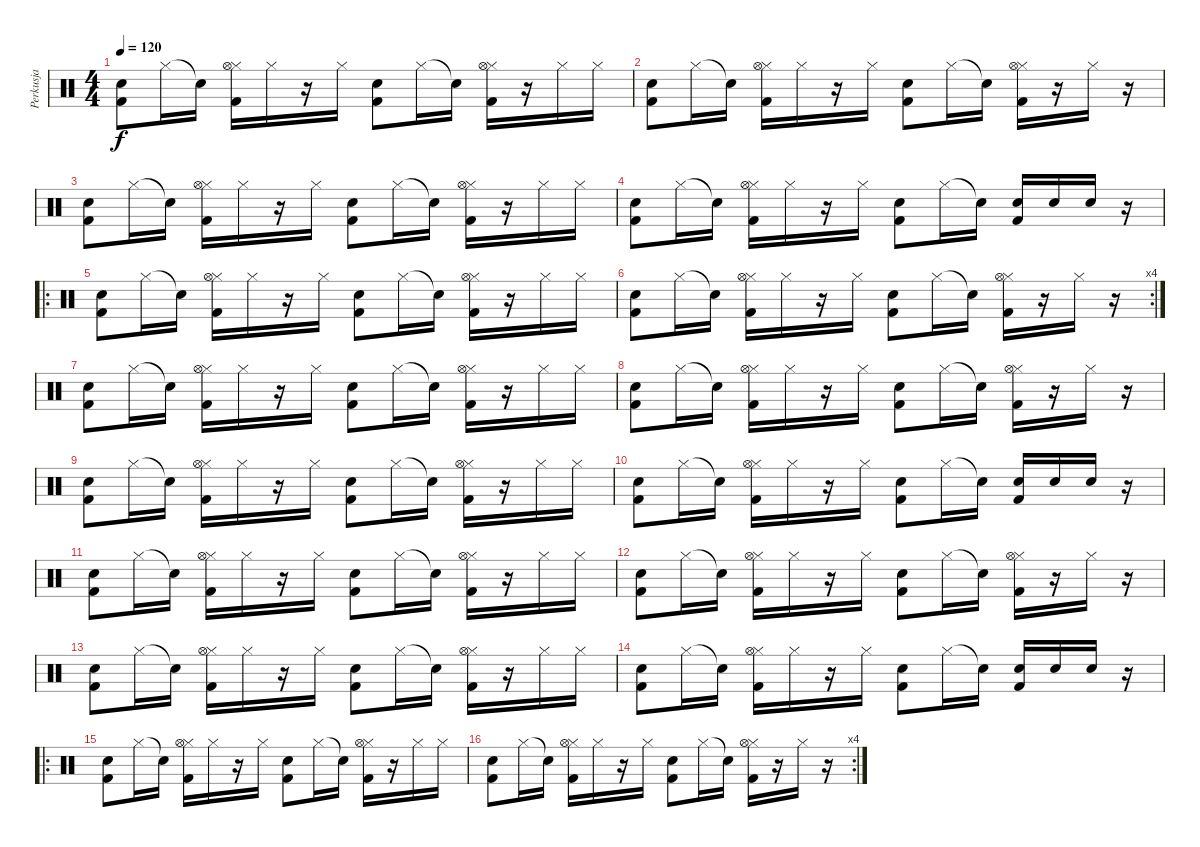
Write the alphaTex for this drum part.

\track ("Perkusja" "Perkusja") {instrument percussion}
\staff {score}
\articulation defaults
\ts (4 4)
\tempo 120
\clef neutral
\ks c
("Snare (hit) 2" "Kick (hit) 2").8{dy f} "Hi-Hat (closed)".16 "Snare (hit)"{t}.16 ("Hi-Hat (closed)" "Hi-Hat (open)" "Kick (hit) 2").16 "Hi-Hat (closed)".16 r.16 "Hi-Hat (closed)".16 ("Snare (hit) 2" "Kick (hit) 2").8 "Hi-Hat (closed)".16 "Snare (hit)"{t}.16 ("Hi-Hat (closed)" "Hi-Hat (open)" "Kick (hit) 2").16 r.16 "Hi-Hat (closed)".16 "Hi-Hat (closed)".16 |
("Snare (hit) 2" "Kick (hit) 2").8 "Hi-Hat (closed)".16 "Snare (hit)"{t}.16 ("Hi-Hat (closed)" "Hi-Hat (open)" "Kick (hit) 2").16 "Hi-Hat (closed)".16 r.16 "Hi-Hat (closed)".16 ("Snare (hit) 2" "Kick (hit) 2").8 "Hi-Hat (closed)".16 "Snare (hit)"{t}.16 ("Hi-Hat (closed)" "Hi-Hat (open)" "Kick (hit) 2").16 r.16 "Hi-Hat (closed)".16 r.16 |
("Snare (hit) 2" "Kick (hit) 2").8 "Hi-Hat (closed)".16 "Snare (hit)"{t}.16 ("Hi-Hat (closed)" "Hi-Hat (open)" "Kick (hit) 2").16 "Hi-Hat (closed)".16 r.16 "Hi-Hat (closed)".16 ("Snare (hit) 2" "Kick (hit) 2").8 "Hi-Hat (closed)".16 "Snare (hit)"{t}.16 ("Hi-Hat (closed)" "Hi-Hat (open)" "Kick (hit) 2").16 r.16 "Hi-Hat (closed)".16 "Hi-Hat (closed)".16 |
("Snare (hit) 2" "Kick (hit) 2").8 "Hi-Hat (closed)".16 "Snare (hit)"{t}.16 ("Hi-Hat (closed)" "Hi-Hat (open)" "Kick (hit) 2").16 "Hi-Hat (closed)".16 r.16 "Hi-Hat (closed)".16 ("Snare (hit) 2" "Kick (hit) 2").8 "Hi-Hat (closed)".16 "Snare (hit)"{t}.16 ("Electric Snare (hit)" "Kick (hit) 2").16 "Electric Snare (hit)".16 "Electric Snare (hit)".16 r.16 |
\ro
("Snare (hit) 2" "Kick (hit) 2").8 "Hi-Hat (closed)".16 "Snare (hit)"{t}.16 ("Hi-Hat (closed)" "Hi-Hat (open)" "Kick (hit) 2").16 "Hi-Hat (closed)".16 r.16 "Hi-Hat (closed)".16 ("Snare (hit) 2" "Kick (hit) 2").8 "Hi-Hat (closed)".16 "Snare (hit)"{t}.16 ("Hi-Hat (closed)" "Hi-Hat (open)" "Kick (hit) 2").16 r.16 "Hi-Hat (closed)".16 "Hi-Hat (closed)".16 |
\rc 4
("Snare (hit) 2" "Kick (hit) 2").8 "Hi-Hat (closed)".16 "Snare (hit)"{t}.16 ("Hi-Hat (closed)" "Hi-Hat (open)" "Kick (hit) 2").16 "Hi-Hat (closed)".16 r.16 "Hi-Hat (closed)".16 ("Snare (hit) 2" "Kick (hit) 2").8 "Hi-Hat (closed)".16 "Snare (hit)"{t}.16 ("Hi-Hat (closed)" "Hi-Hat (open)" "Kick (hit) 2").16 r.16 "Hi-Hat (closed)".16 r.16 |
("Snare (hit) 2" "Kick (hit) 2").8 "Hi-Hat (closed)".16 "Snare (hit)"{t}.16 ("Hi-Hat (closed)" "Hi-Hat (open)" "Kick (hit) 2").16 "Hi-Hat (closed)".16 r.16 "Hi-Hat (closed)".16 ("Snare (hit) 2" "Kick (hit) 2").8 "Hi-Hat (closed)".16 "Snare (hit)"{t}.16 ("Hi-Hat (closed)" "Hi-Hat (open)" "Kick (hit) 2").16 r.16 "Hi-Hat (closed)".16 "Hi-Hat (closed)".16 |
("Snare (hit) 2" "Kick (hit) 2").8 "Hi-Hat (closed)".16 "Snare (hit)"{t}.16 ("Hi-Hat (closed)" "Hi-Hat (open)" "Kick (hit) 2").16 "Hi-Hat (closed)".16 r.16 "Hi-Hat (closed)".16 ("Snare (hit) 2" "Kick (hit) 2").8 "Hi-Hat (closed)".16 "Snare (hit)"{t}.16 ("Hi-Hat (closed)" "Hi-Hat (open)" "Kick (hit) 2").16 r.16 "Hi-Hat (closed)".16 r.16 |
("Snare (hit) 2" "Kick (hit) 2").8 "Hi-Hat (closed)".16 "Snare (hit)"{t}.16 ("Hi-Hat (closed)" "Hi-Hat (open)" "Kick (hit) 2").16 "Hi-Hat (closed)".16 r.16 "Hi-Hat (closed)".16 ("Snare (hit) 2" "Kick (hit) 2").8 "Hi-Hat (closed)".16 "Snare (hit)"{t}.16 ("Hi-Hat (closed)" "Hi-Hat (open)" "Kick (hit) 2").16 r.16 "Hi-Hat (closed)".16 "Hi-Hat (closed)".16 |
("Snare (hit) 2" "Kick (hit) 2").8 "Hi-Hat (closed)".16 "Snare (hit)"{t}.16 ("Hi-Hat (closed)" "Hi-Hat (open)" "Kick (hit) 2").16 "Hi-Hat (closed)".16 r.16 "Hi-Hat (closed)".16 ("Snare (hit) 2" "Kick (hit) 2").8 "Hi-Hat (closed)".16 "Snare (hit)"{t}.16 ("Electric Snare (hit)" "Kick (hit) 2").16 "Electric Snare (hit)".16 "Electric Snare (hit)".16 r.16 |
("Snare (hit) 2" "Kick (hit) 2").8 "Hi-Hat (closed)".16 "Snare (hit)"{t}.16 ("Hi-Hat (closed)" "Hi-Hat (open)" "Kick (hit) 2").16 "Hi-Hat (closed)".16 r.16 "Hi-Hat (closed)".16 ("Snare (hit) 2" "Kick (hit) 2").8 "Hi-Hat (closed)".16 "Snare (hit)"{t}.16 ("Hi-Hat (closed)" "Hi-Hat (open)" "Kick (hit) 2").16 r.16 "Hi-Hat (closed)".16 "Hi-Hat (closed)".16 |
("Snare (hit) 2" "Kick (hit) 2").8 "Hi-Hat (closed)".16 "Snare (hit)"{t}.16 ("Hi-Hat (closed)" "Hi-Hat (open)" "Kick (hit) 2").16 "Hi-Hat (closed)".16 r.16 "Hi-Hat (closed)".16 ("Snare (hit) 2" "Kick (hit) 2").8 "Hi-Hat (closed)".16 "Snare (hit)"{t}.16 ("Hi-Hat (closed)" "Hi-Hat (open)" "Kick (hit) 2").16 r.16 "Hi-Hat (closed)".16 r.16 |
("Snare (hit) 2" "Kick (hit) 2").8 "Hi-Hat (closed)".16 "Snare (hit)"{t}.16 ("Hi-Hat (closed)" "Hi-Hat (open)" "Kick (hit) 2").16 "Hi-Hat (closed)".16 r.16 "Hi-Hat (closed)".16 ("Snare (hit) 2" "Kick (hit) 2").8 "Hi-Hat (closed)".16 "Snare (hit)"{t}.16 ("Hi-Hat (closed)" "Hi-Hat (open)" "Kick (hit) 2").16 r.16 "Hi-Hat (closed)".16 "Hi-Hat (closed)".16 |
("Snare (hit) 2" "Kick (hit) 2").8 "Hi-Hat (closed)".16 "Snare (hit)"{t}.16 ("Hi-Hat (closed)" "Hi-Hat (open)" "Kick (hit) 2").16 "Hi-Hat (closed)".16 r.16 "Hi-Hat (closed)".16 ("Snare (hit) 2" "Kick (hit) 2").8 "Hi-Hat (closed)".16 "Snare (hit)"{t}.16 ("Electric Snare (hit)" "Kick (hit) 2").16 "Electric Snare (hit)".16 "Electric Snare (hit)".16 r.16 |
\ro
("Snare (hit) 2" "Kick (hit) 2").8 "Hi-Hat (closed)".16 "Snare (hit)"{t}.16 ("Hi-Hat (closed)" "Hi-Hat (open)" "Kick (hit) 2").16 "Hi-Hat (closed)".16 r.16 "Hi-Hat (closed)".16 ("Snare (hit) 2" "Kick (hit) 2").8 "Hi-Hat (closed)".16 "Snare (hit)"{t}.16 ("Hi-Hat (closed)" "Hi-Hat (open)" "Kick (hit) 2").16 r.16 "Hi-Hat (closed)".16 "Hi-Hat (closed)".16 |
\rc 4
("Snare (hit) 2" "Kick (hit) 2").8 "Hi-Hat (closed)".16 "Snare (hit)"{t}.16 ("Hi-Hat (closed)" "Hi-Hat (open)" "Kick (hit) 2").16 "Hi-Hat (closed)".16 r.16 "Hi-Hat (closed)".16 ("Snare (hit) 2" "Kick (hit) 2").8 "Hi-Hat (closed)".16 "Snare (hit)"{t}.16 ("Hi-Hat (closed)" "Hi-Hat (open)" "Kick (hit) 2").16 r.16 "Hi-Hat (closed)".16 r.16
